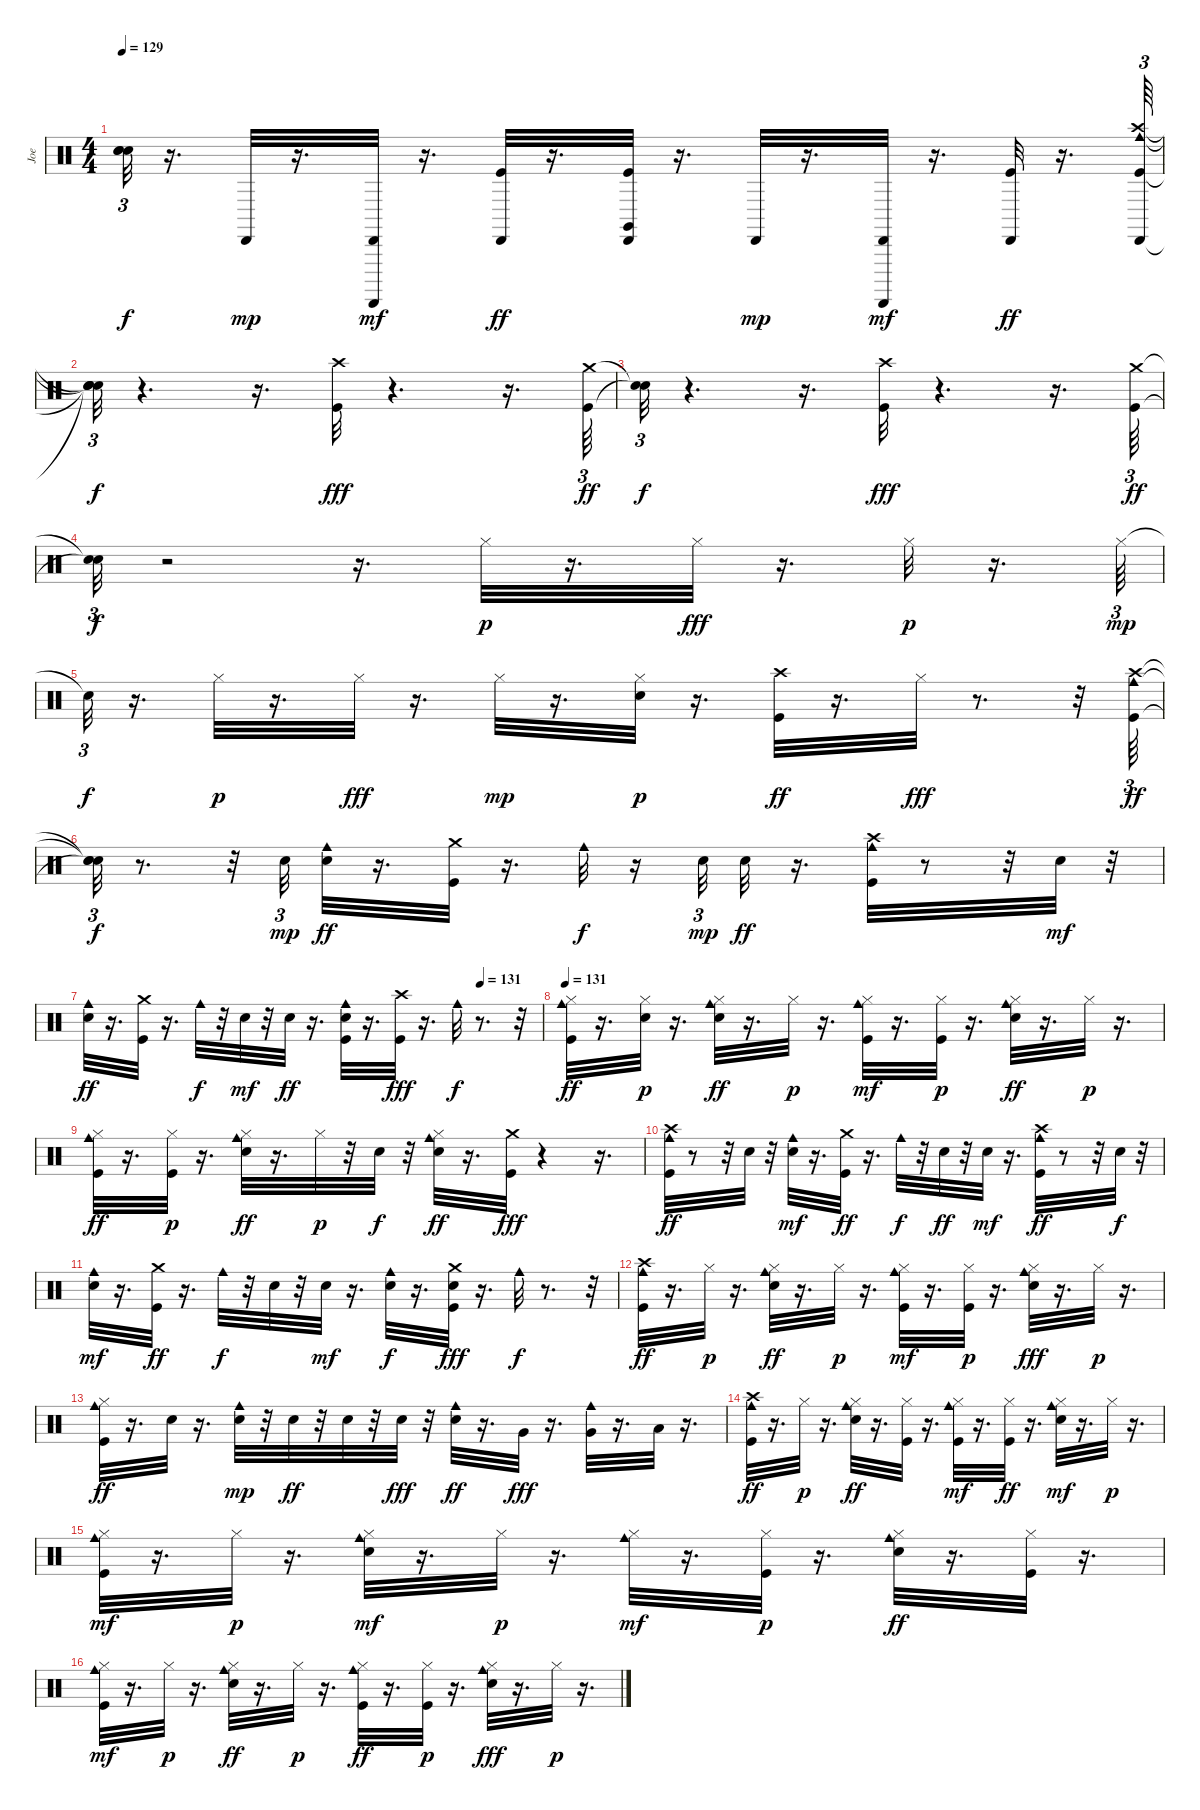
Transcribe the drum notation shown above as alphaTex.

\track ("Joe" "Joe") {instrument percussion}
\staff {score}
\articulation defaults
\ts (4 4)
\tempo 129
\clef neutral
\ks c
("Snare (hit)"{t} "Snare (hit)"{t} "Snare (hit)"{t}).32{tu (3 2) dy f} r.16{d} "Cabasa (hit)".32{dy mp} r.16{d} ("Cabasa (hit)" "Guiro (scrap-return)").32{dy mf} r.16{d} ("Cabasa (hit)" "Kick (hit)").32{dy ff} r.16{d} ("Cabasa (hit)" "Kick (hit)" "Claves (hit)").32 r.16{d} "Cabasa (hit)".32{dy mp} r.16{d} ("Guiro (scrap-return)" "Cabasa (hit)").32{dy mf} r.16{d} ("Kick (hit)" "Cabasa (hit)").32{dy ff} r.16{d} ("Cowbell medium (hit)" "Kick (hit)" "Cabasa (hit)" "Crash high (hit)").64{tu (3 2)} |
("Snare (hit)"{t} "Snare (hit)"{t} "Snare (hit)"{t} "Snare (hit)"{t}).32{tu (3 2) dy f} r.4{d} r.16{d} ("Crash high (hit)" "Kick (hit)").32{dy fff} r.4{d} r.16{d} ("Kick (hit)" "Crash medium (hit)").64{tu (3 2) dy ff} |
("Snare (hit)"{t} "Snare (hit)"{t}).32{tu (3 2) dy f} r.4{d} r.16{d} ("Crash high (hit)" "Kick (hit)").32{dy fff} r.4{d} r.16{d} ("Kick (hit)" "Crash medium (hit)").64{tu (3 2) dy ff} |
("Snare (hit)"{t} "Snare (hit)"{t}).32{tu (3 2) dy f} r.2 r.16{d} "Hi-Hat (closed)".32{dy p} r.16{d} "Hi-Hat (closed)".32{dy fff} r.16{d} "Hi-Hat (closed)".32{dy p} r.16{d} "Hi-Hat (closed)".64{tu (3 2) dy mp} |
"Snare (hit)"{t}.32{tu (3 2) dy f} r.16{d} "Hi-Hat (closed)".32{dy p} r.16{d} "Hi-Hat (closed)".32{dy fff} r.16{d} "Hi-Hat (closed)".32{dy mp} r.16{d} ("Hi-Hat (closed)" "Snare (hit) 2").32{dy p} r.16{d} ("Kick (hit)" "Crash high (hit)").32{dy ff} r.16{d} "Hi-Hat (closed)".32{dy fff} r.8{d} r.32 ("Cowbell medium (hit)" "Crash high (hit)" "Kick (hit)").64{tu (3 2) dy ff} |
("Snare (hit)"{t} "Snare (hit)"{t} "Snare (hit)"{t}).32{tu (3 2) dy f} r.8{d} r.32 "Snare (hit) 2".32{tu (3 2) dy mp} ("Cowbell medium (hit)" "Snare (hit) 2").32{dy ff} r.16{d} ("Kick (hit)" "Crash medium (hit)").32 r.16{d} "Cowbell medium (hit)".32{dy f} r.16 "Snare (hit) 2".32{tu (3 2) dy mp} "Snare (hit) 2".32{dy ff} r.16{d} ("Kick (hit)" "Cowbell medium (hit)" "Crash high (hit)").32 r.8 r.32 "Snare (hit) 2".32{dy mf} r.32 |
\tempo (131 0.8645833333333334)
("Cowbell medium (hit)" "Snare (hit) 2").32{dy ff} r.16{d} ("Kick (hit)" "Crash medium (hit)").32 r.16{d} "Cowbell medium (hit)".32{dy f} r.32 "Snare (hit) 2".32{dy mf} r.32 "Snare (hit) 2".32{dy ff} r.16{d} ("Cowbell medium (hit)" "Kick (hit)" "Snare (hit) 2").32 r.16{d} ("Kick (hit)" "Crash high (hit)").32{dy fff} r.16{d} "Cowbell medium (hit)".32{dy f} r.8{d} r.32 |
\tempo 131
("Cowbell medium (hit)" "Hi-Hat (closed)" "Kick (hit)").32{dy ff} r.16{d} ("Snare (hit) 2" "Hi-Hat (closed)").32{dy p} r.16{d} ("Cowbell medium (hit)" "Hi-Hat (closed)" "Snare (hit) 2").32{dy ff} r.16{d} "Hi-Hat (closed)".32{dy p} r.16{d} ("Kick (hit)" "Cowbell medium (hit)" "Hi-Hat (closed)").32{dy mf} r.16{d} ("Kick (hit)" "Hi-Hat (closed)").32{dy p} r.16{d} ("Hi-Hat (closed)" "Snare (hit) 2" "Cowbell medium (hit)").32{dy ff} r.16{d} "Hi-Hat (closed)".32{dy p} r.16{d} |
("Cowbell medium (hit)" "Hi-Hat (closed)" "Kick (hit)").32{dy ff} r.16{d} ("Hi-Hat (closed)" "Kick (hit)").32{dy p} r.16{d} ("Cowbell medium (hit)" "Hi-Hat (closed)" "Snare (hit) 2").32{dy ff} r.16{d} "Hi-Hat (closed)".32{dy p} r.32 "Snare (hit) 2".32{dy f} r.32 ("Cowbell medium (hit)" "Snare (hit) 2" "Hi-Hat (closed)").32{dy ff} r.16{d} ("Kick (hit)" "Crash medium (hit)").32{dy fff} r.4 r.16{d} |
("Kick (hit)" "Crash high (hit)" "Cowbell medium (hit)").32{dy ff} r.8 r.32 "Snare (hit) 2".32 r.32 ("Cowbell medium (hit)" "Snare (hit) 2").32{dy mf} r.16{d} ("Kick (hit)" "Crash medium (hit)").32{dy ff} r.16{d} "Cowbell medium (hit)".32{dy f} r.32 "Snare (hit) 2".32{dy ff} r.32 "Snare (hit) 2".32{dy mf} r.16{d} ("Cowbell medium (hit)" "Crash high (hit)" "Kick (hit)").32{dy ff} r.8 r.32 "Snare (hit) 2".32{dy f} r.32 |
("Cowbell medium (hit)" "Snare (hit) 2").32{dy mf} r.16{d} ("Crash medium (hit)" "Kick (hit)").32{dy ff} r.16{d} "Cowbell medium (hit)".32{dy f} r.32 "Snare (hit) 2".32 r.32 "Snare (hit) 2".32{dy mf} r.16{d} ("Snare (hit) 2" "Cowbell medium (hit)").32{dy f} r.16{d} ("Snare (hit) 2" "Crash medium (hit)" "Kick (hit)").32{dy fff} r.16{d} "Cowbell medium (hit)".32{dy f} r.8{d} r.32 |
("Crash high (hit)" "Kick (hit)" "Cowbell medium (hit)").32{dy ff} r.16{d} "Hi-Hat (closed)".32{dy p} r.16{d} ("Cowbell medium (hit)" "Hi-Hat (closed)" "Snare (hit) 2").32{dy ff} r.16{d} "Hi-Hat (closed)".32{dy p} r.16{d} ("Cowbell medium (hit)" "Kick (hit)" "Hi-Hat (closed)").32{dy mf} r.16{d} ("Hi-Hat (closed)" "Kick (hit)").32{dy p} r.16{d} ("Cowbell medium (hit)" "Hi-Hat (closed)" "Snare (hit) 2").32{dy fff} r.16{d} "Hi-Hat (closed)".32{dy p} r.16{d} |
("Kick (hit)" "Cowbell medium (hit)" "Hi-Hat (closed)").32{dy ff} r.16{d} "Snare (hit) 2".32 r.16{d} ("Cowbell medium (hit)" "Snare (hit) 2").32{dy mp} r.32 "Snare (hit) 2".32{dy ff} r.32 "Snare (hit) 2".32 r.32 "Snare (hit) 2".32{dy fff} r.32 ("Snare (hit) 2" "Cowbell medium (hit)").32{dy ff} r.16{d} "Very Low Tom (hit)".32{dy fff} r.16{d} ("Cowbell medium (hit)" "Very Low Tom (hit)").32 r.16{d} "Low Floor Tom (hit)".32 r.16{d} |
("Kick (hit)" "Crash high (hit)" "Cowbell medium (hit)").32{dy ff} r.16{d} "Hi-Hat (closed)".32{dy p} r.16{d} ("Cowbell medium (hit)" "Hi-Hat (closed)" "Snare (hit) 2").32{dy ff} r.16{d} ("Hi-Hat (closed)" "Kick (hit)").32 r.16{d} ("Kick (hit)" "Hi-Hat (closed)" "Cowbell medium (hit)").32{dy mf} r.16{d} ("Hi-Hat (closed)" "Kick (hit)").32{dy ff} r.16{d} ("Snare (hit) 2" "Cowbell medium (hit)" "Hi-Hat (closed)").32{dy mf} r.16{d} "Hi-Hat (closed)".32{dy p} r.16{d} |
("Kick (hit)" "Hi-Hat (closed)" "Cowbell medium (hit)").32{dy mf} r.16{d} "Hi-Hat (closed)".32{dy p} r.16{d} ("Snare (hit) 2" "Hi-Hat (closed)" "Cowbell medium (hit)").32{dy mf} r.16{d} "Hi-Hat (closed)".32{dy p} r.16{d} ("Hi-Hat (closed)" "Cowbell medium (hit)").32{dy mf} r.16{d} ("Kick (hit)" "Hi-Hat (closed)").32{dy p} r.16{d} ("Cowbell medium (hit)" "Snare (hit) 2" "Hi-Hat (closed)").32{dy ff} r.16{d} ("Hi-Hat (closed)" "Kick (hit)").32 r.16{d} |
("Kick (hit)" "Hi-Hat (closed)" "Cowbell medium (hit)").32{dy mf} r.16{d} "Hi-Hat (closed)".32{dy p} r.16{d} ("Hi-Hat (closed)" "Cowbell medium (hit)" "Snare (hit) 2").32{dy ff} r.16{d} "Hi-Hat (closed)".32{dy p} r.16{d} ("Hi-Hat (closed)" "Cowbell medium (hit)" "Kick (hit)").32{dy ff} r.16{d} ("Kick (hit)" "Hi-Hat (closed)").32{dy p} r.16{d} ("Snare (hit) 2" "Cowbell medium (hit)" "Hi-Hat (closed)").32{dy fff} r.16{d} "Hi-Hat (closed)".32{dy p} r.16{d}
